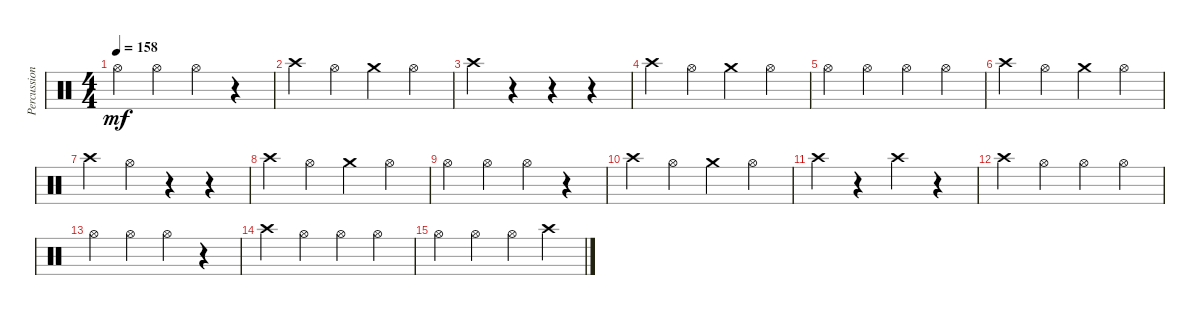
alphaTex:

\track ("Percussion2" "Percussion") {instrument percussion}
\staff {score}
\articulation defaults
\ts (4 4)
\tempo 158
\clef neutral
\ks c "Hi-Hat (open)".4{dy mf} "Hi-Hat (open)".4 "Hi-Hat (open)".4
r.4 |
"Crash high (hit)".4 "Hi-Hat (open)".4 "Crash medium (hit)".4 "Hi-Hat (open)".4 |
"Crash high (hit)".4 r.4 r.4 r.4 |
"Crash high (hit)".4 "Hi-Hat (open)".4 "Crash medium (hit)".4 "Hi-Hat (open)".4 |
"Hi-Hat (open)".4 "Hi-Hat (open)".4 "Hi-Hat (open)".4 "Hi-Hat (open)".4 |
"Crash high (hit)".4 "Hi-Hat (open)".4 "Crash medium (hit)".4 "Hi-Hat (open)".4 |
"Crash high (hit)".4 "Hi-Hat (open)".4 r.4 r.4 |
"Crash high (hit)".4 "Hi-Hat (open)".4 "Crash medium (hit)".4 "Hi-Hat (open)".4 |
"Hi-Hat (open)".4 "Hi-Hat (open)".4 "Hi-Hat (open)".4 r.4 |
"Crash high (hit)".4 "Hi-Hat (open)".4 "Crash medium (hit)".4 "Hi-Hat (open)".4 |
"Crash high (hit)".4 r.4 "Crash high (hit)".4 r.4 |
"Crash high (hit)".4 "Hi-Hat (open)".4 "Hi-Hat (open)".4 "Hi-Hat (open)".4 |
"Hi-Hat (open)".4 "Hi-Hat (open)".4 "Hi-Hat (open)".4 r.4 |
"Crash high (hit)".4 "Hi-Hat (open)".4 "Hi-Hat (open)".4 "Hi-Hat (open)".4 |
"Hi-Hat (open)".4 "Hi-Hat (open)".4 "Hi-Hat (open)".4 "Crash high (hit)".4
